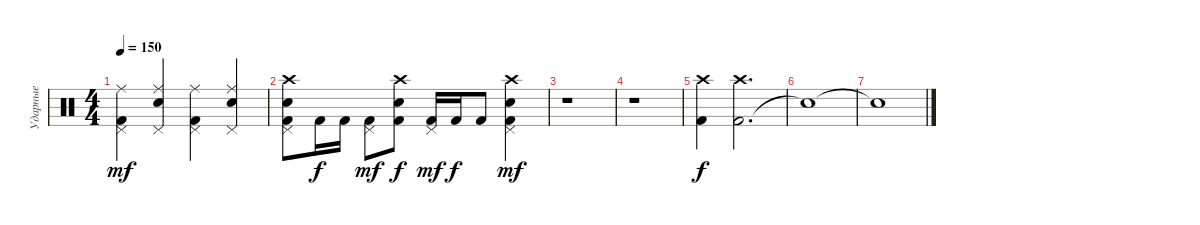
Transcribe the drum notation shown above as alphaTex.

\track ("Ударные" "Ударные") {instrument percussion}
\staff {score}
\articulation defaults
\ts (4 4)
\tempo 150
\clef neutral
\ks c
("Kick (hit) 2" "Pedal Hi-Hat (hit)" "Ride (middle)").4{dy mf} ("Snare (hit) 2" "Pedal Hi-Hat (hit)" "Ride (middle)").4 ("Kick (hit) 2" "Pedal Hi-Hat (hit)" "Ride (middle)").4 ("Snare (hit) 2" "Pedal Hi-Hat (hit)" "Ride (middle)").4 |
("Kick (hit) 2" "Snare (hit) 2" "Crash high (hit)" "Pedal Hi-Hat (hit)").8 "Kick (hit) 2".16{dy f} "Kick (hit) 2".16 ("Kick (hit) 2" "Pedal Hi-Hat (hit)").8{dy mf} ("Kick (hit) 2" "Snare (hit) 2" "Crash high (hit)").8{dy f} ("Kick (hit) 2" "Pedal Hi-Hat (hit)").16{dy mf} "Kick (hit) 2".16{dy f} "Kick (hit) 2".8 ("Kick (hit) 2" "Snare (hit) 2" "Crash high (hit)" "Pedal Hi-Hat (hit)").4{dy mf} |
r.1 |
r.1 |
("Kick (hit) 2" "Crash high (hit)").4{dy f} ("Kick (hit) 2" "Crash high (hit)").2{d} |
"Snare (hit)"{t}.1 |
"Snare (hit)"{t}.1
